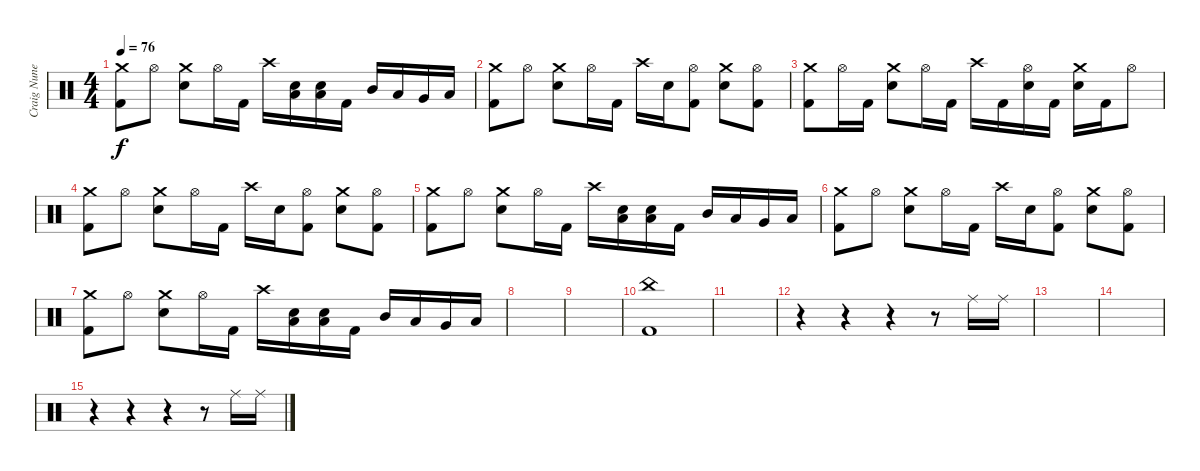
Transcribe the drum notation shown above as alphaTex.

\track ("Craig Nunenmacher" "Craig Nune") {instrument percussion}
\staff {score}
\articulation defaults
\ts (4 4)
\tempo 76
\clef neutral
\ks c
("Crash medium (hit)" "Kick (hit) 2").8{dy f} "Hi-Hat (open)".8 ("Crash medium (hit)" "Snare (hit) 2").8 "Hi-Hat (open)".16 "Kick (hit) 2".16 "Crash high (hit)".16 ("Snare (hit) 2" "Low Tom (hit)").16 ("Snare (hit) 2" "Low Tom (hit)").16 "Kick (hit) 2".16 "Mid Tom (hit)".16 "Low Tom (hit)".16 "Very Low Tom (hit)".16 "Low Floor Tom (hit)".16 |
("Crash medium (hit)" "Kick (hit) 2").8 "Hi-Hat (open)".8 ("Crash medium (hit)" "Snare (hit) 2").8 "Hi-Hat (open)".16 "Kick (hit) 2".16 "Crash high (hit)".16 "Snare (hit) 2".16 ("Hi-Hat (open)" "Kick (hit) 2").8 ("Crash medium (hit)" "Snare (hit) 2").8 ("Hi-Hat (open)" "Kick (hit) 2").8 |
("Crash medium (hit)" "Kick (hit) 2").8 "Hi-Hat (open)".16 "Kick (hit) 2".16 ("Crash medium (hit)" "Snare (hit) 2").8 "Hi-Hat (open)".16 "Kick (hit) 2".16 "Crash high (hit)".16 "Kick (hit) 2".16 ("Hi-Hat (open)" "Snare (hit) 2").16 "Kick (hit) 2".16 ("Crash medium (hit)" "Snare (hit) 2").16 "Kick (hit) 2".16 "Hi-Hat (open)".8 |
("Crash medium (hit)" "Kick (hit) 2").8 "Hi-Hat (open)".8 ("Crash medium (hit)" "Snare (hit) 2").8 "Hi-Hat (open)".16 "Kick (hit) 2".16 "Crash high (hit)".16 "Snare (hit) 2".16 ("Hi-Hat (open)" "Kick (hit) 2").8 ("Crash medium (hit)" "Snare (hit) 2").8 ("Hi-Hat (open)" "Kick (hit) 2").8 |
("Crash medium (hit)" "Kick (hit) 2").8 "Hi-Hat (open)".8 ("Crash medium (hit)" "Snare (hit) 2").8 "Hi-Hat (open)".16 "Kick (hit) 2".16 "Crash high (hit)".16 ("Snare (hit) 2" "Low Tom (hit)").16 ("Snare (hit) 2" "Low Tom (hit)").16 "Kick (hit) 2".16 "Mid Tom (hit)".16 "Low Tom (hit)".16 "Very Low Tom (hit)".16 "Low Floor Tom (hit)".16 |
("Crash medium (hit)" "Kick (hit) 2").8 "Hi-Hat (open)".8 ("Crash medium (hit)" "Snare (hit) 2").8 "Hi-Hat (open)".16 "Kick (hit) 2".16 "Crash high (hit)".16 "Snare (hit) 2".16 ("Hi-Hat (open)" "Kick (hit) 2").8 ("Crash medium (hit)" "Snare (hit) 2").8 ("Hi-Hat (open)" "Kick (hit) 2").8 |
("Crash medium (hit)" "Kick (hit) 2").8 "Hi-Hat (open)".8 ("Crash medium (hit)" "Snare (hit) 2").8 "Hi-Hat (open)".16 "Kick (hit) 2".16 "Crash high (hit)".16 ("Snare (hit) 2" "Low Tom (hit)").16 ("Snare (hit) 2" "Low Tom (hit)").16 "Kick (hit) 2".16 "Mid Tom (hit)".16 "Low Tom (hit)".16 "Very Low Tom (hit)".16 "Low Floor Tom (hit)".16 |
|
|
("China (hit)" "Kick (hit) 2").1 |
|
r.4 r.4 r.4 r.8 "Ride (middle)".16 "Ride (middle)".16 |
|
|
r.4 r.4 r.4 r.8 "Ride (middle)".16 "Ride (middle)".16
